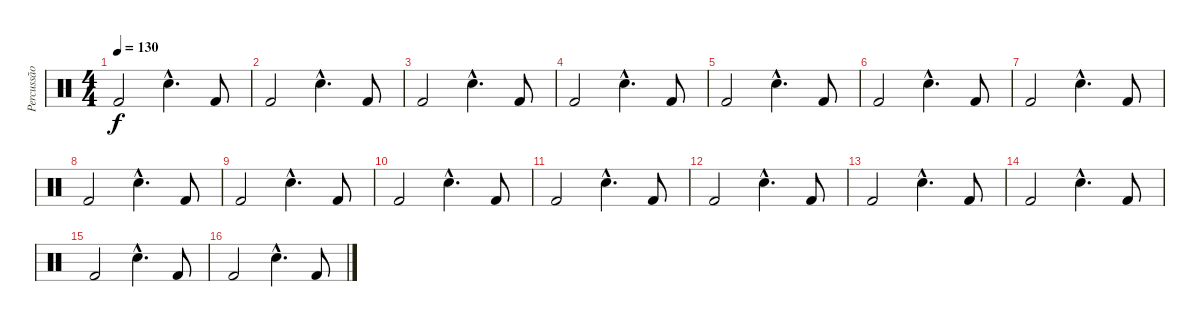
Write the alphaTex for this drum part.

\track ("Percussão" "Percussão") {instrument percussion}
\staff {score}
\articulation defaults
\ts (4 4)
\tempo 130
\clef neutral
\ks c "Kick (hit) 2".2{dy f} "Snare (hit) 2"{hac}.4{d} "Kick (hit) 2".8
|
"Kick (hit) 2".2 "Snare (hit) 2"{hac}.4{d} "Kick (hit) 2".8 |
"Kick (hit) 2".2 "Snare (hit) 2"{hac}.4{d} "Kick (hit) 2".8 |
"Kick (hit) 2".2 "Snare (hit) 2"{hac}.4{d} "Kick (hit) 2".8 |
"Kick (hit) 2".2 "Snare (hit) 2"{hac}.4{d} "Kick (hit) 2".8 |
"Kick (hit) 2".2 "Snare (hit) 2"{hac}.4{d} "Kick (hit) 2".8 |
"Kick (hit) 2".2 "Snare (hit) 2"{hac}.4{d} "Kick (hit) 2".8 |
"Kick (hit) 2".2 "Snare (hit) 2"{hac}.4{d} "Kick (hit) 2".8 |
"Kick (hit) 2".2 "Snare (hit) 2"{hac}.4{d} "Kick (hit) 2".8 |
"Kick (hit) 2".2 "Snare (hit) 2"{hac}.4{d} "Kick (hit) 2".8 |
"Kick (hit) 2".2 "Snare (hit) 2"{hac}.4{d} "Kick (hit) 2".8 |
"Kick (hit) 2".2 "Snare (hit) 2"{hac}.4{d} "Kick (hit) 2".8 |
"Kick (hit) 2".2 "Snare (hit) 2"{hac}.4{d} "Kick (hit) 2".8 |
"Kick (hit) 2".2 "Snare (hit) 2"{hac}.4{d} "Kick (hit) 2".8 |
"Kick (hit) 2".2 "Snare (hit) 2"{hac}.4{d} "Kick (hit) 2".8 |
"Kick (hit) 2".2 "Snare (hit) 2"{hac}.4{d} "Kick (hit) 2".8
